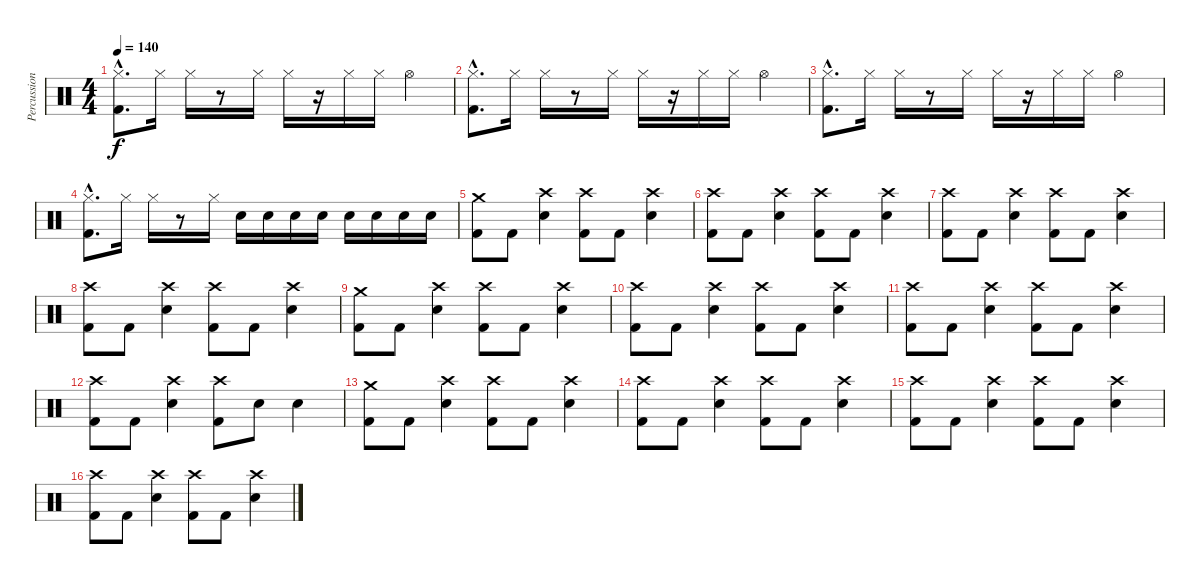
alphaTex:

\track ("Percussion" "Percussion") {instrument percussion}
\staff {score}
\articulation defaults
\ts (4 4)
\tempo 140
\clef neutral
\ks c
("Hi-Hat (closed)"{hac} "Kick (hit) 2"{hac}).8{d dy f} "Hi-Hat (closed)".16 "Hi-Hat (closed)".16 r.8 "Hi-Hat (closed)".16 "Hi-Hat (closed)".16 r.16 "Hi-Hat (closed)".16 "Hi-Hat (closed)".16 "Hi-Hat (open)".4 |
("Hi-Hat (closed)"{hac} "Kick (hit) 2"{hac}).8{d} "Hi-Hat (closed)".16 "Hi-Hat (closed)".16 r.8 "Hi-Hat (closed)".16 "Hi-Hat (closed)".16 r.16 "Hi-Hat (closed)".16 "Hi-Hat (closed)".16 "Hi-Hat (open)".4 |
("Hi-Hat (closed)"{hac} "Kick (hit) 2"{hac}).8{d} "Hi-Hat (closed)".16 "Hi-Hat (closed)".16 r.8 "Hi-Hat (closed)".16 "Hi-Hat (closed)".16 r.16 "Hi-Hat (closed)".16 "Hi-Hat (closed)".16 "Hi-Hat (open)".4 |
("Hi-Hat (closed)"{hac} "Kick (hit) 2"{hac}).8{d} "Hi-Hat (closed)".16 "Hi-Hat (closed)".16 r.8 "Hi-Hat (closed)".16 "Electric Snare (hit)".16 "Electric Snare (hit)".16 "Electric Snare (hit)".16 "Electric Snare (hit)".16 "Electric Snare (hit)".16 "Electric Snare (hit)".16 "Electric Snare (hit)".16 "Electric Snare (hit)".16 |
("Crash medium (hit)" "Kick (hit) 2").8 "Kick (hit) 2".8 ("Crash high (hit)" "Electric Snare (hit)").4 ("Crash high (hit)" "Kick (hit) 2").8 "Kick (hit) 2".8 ("Crash high (hit)" "Electric Snare (hit)").4 |
("Crash high (hit)" "Kick (hit) 2").8 "Kick (hit) 2".8 ("Crash high (hit)" "Electric Snare (hit)").4 ("Crash high (hit)" "Kick (hit) 2").8 "Kick (hit) 2".8 ("Crash high (hit)" "Electric Snare (hit)").4 |
("Crash high (hit)" "Kick (hit) 2").8 "Kick (hit) 2".8 ("Crash high (hit)" "Electric Snare (hit)").4 ("Crash high (hit)" "Kick (hit) 2").8 "Kick (hit) 2".8 ("Crash high (hit)" "Electric Snare (hit)").4 |
("Crash high (hit)" "Kick (hit) 2").8 "Kick (hit) 2".8 ("Crash high (hit)" "Electric Snare (hit)").4 ("Crash high (hit)" "Kick (hit) 2").8 "Kick (hit) 2".8 ("Crash high (hit)" "Electric Snare (hit)").4 |
("Crash medium (hit)" "Kick (hit) 2").8 "Kick (hit) 2".8 ("Crash high (hit)" "Electric Snare (hit)").4 ("Crash high (hit)" "Kick (hit) 2").8 "Kick (hit) 2".8 ("Crash high (hit)" "Electric Snare (hit)").4 |
("Crash high (hit)" "Kick (hit) 2").8 "Kick (hit) 2".8 ("Crash high (hit)" "Electric Snare (hit)").4 ("Crash high (hit)" "Kick (hit) 2").8 "Kick (hit) 2".8 ("Crash high (hit)" "Electric Snare (hit)").4 |
("Crash high (hit)" "Kick (hit) 2").8 "Kick (hit) 2".8 ("Crash high (hit)" "Electric Snare (hit)").4 ("Crash high (hit)" "Kick (hit) 2").8 "Kick (hit) 2".8 ("Crash high (hit)" "Electric Snare (hit)").4 |
("Crash high (hit)" "Kick (hit) 2").8 "Kick (hit) 2".8 ("Crash high (hit)" "Electric Snare (hit)").4 ("Crash high (hit)" "Kick (hit) 2").8 "Electric Snare (hit)".8 "Electric Snare (hit)".4 |
("Crash medium (hit)" "Kick (hit) 2").8 "Kick (hit) 2".8 ("Crash high (hit)" "Electric Snare (hit)").4 ("Crash high (hit)" "Kick (hit) 2").8 "Kick (hit) 2".8 ("Crash high (hit)" "Electric Snare (hit)").4 |
("Crash high (hit)" "Kick (hit) 2").8 "Kick (hit) 2".8 ("Crash high (hit)" "Electric Snare (hit)").4 ("Crash high (hit)" "Kick (hit) 2").8 "Kick (hit) 2".8 ("Crash high (hit)" "Electric Snare (hit)").4 |
("Crash high (hit)" "Kick (hit) 2").8 "Kick (hit) 2".8 ("Crash high (hit)" "Electric Snare (hit)").4 ("Crash high (hit)" "Kick (hit) 2").8 "Kick (hit) 2".8 ("Crash high (hit)" "Electric Snare (hit)").4 |
("Crash high (hit)" "Kick (hit) 2").8 "Kick (hit) 2".8 ("Crash high (hit)" "Electric Snare (hit)").4 ("Crash high (hit)" "Kick (hit) 2").8 "Kick (hit) 2".8 ("Crash high (hit)" "Electric Snare (hit)").4
